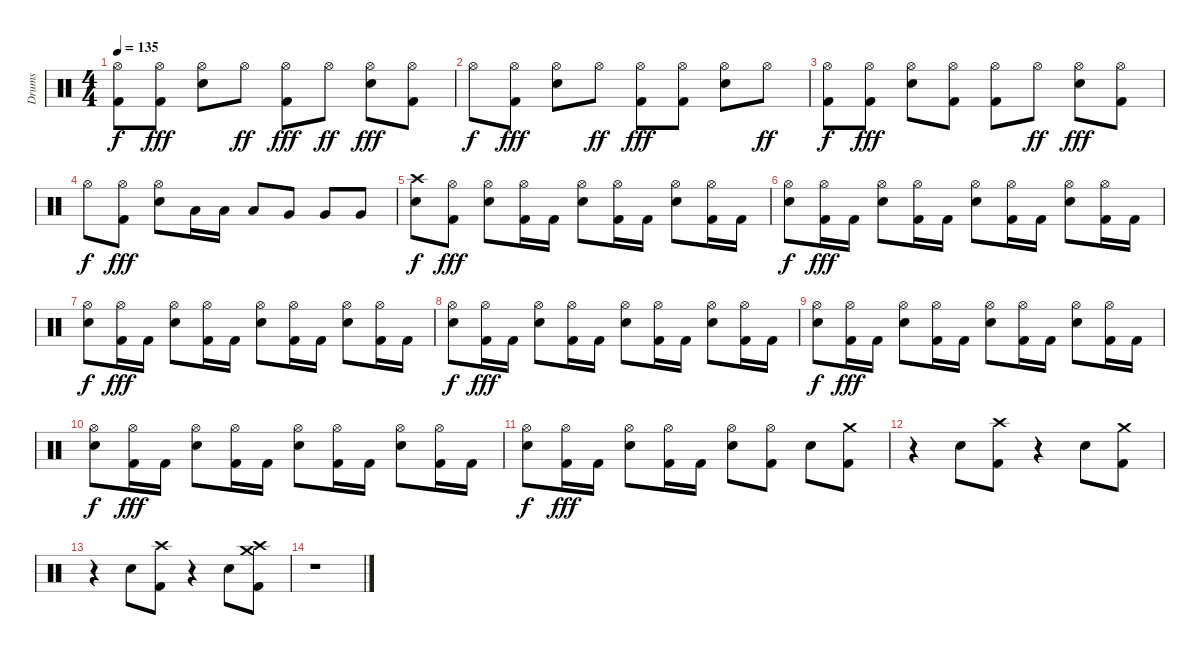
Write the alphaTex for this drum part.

\track ("Drums" "Drums") {instrument percussion}
\staff {score}
\articulation defaults
\ts (4 4)
\tempo 135
\clef neutral
\ks c
("Hi-Hat (open)" "Kick (hit) 2").8{dy f} ("Hi-Hat (open)" "Kick (hit) 2").8{dy fff} ("Hi-Hat (open)" "Snare (hit) 2").8 "Hi-Hat (open)".8{dy ff} ("Hi-Hat (open)" "Kick (hit) 2").8{dy fff} "Hi-Hat (open)".8{dy ff} ("Hi-Hat (open)" "Snare (hit) 2").8{dy fff} ("Hi-Hat (open)" "Kick (hit) 2").8 |
"Hi-Hat (open)".8{dy f} ("Hi-Hat (open)" "Kick (hit) 2").8{dy fff} ("Hi-Hat (open)" "Snare (hit) 2").8 "Hi-Hat (open)".8{dy ff} ("Hi-Hat (open)" "Kick (hit) 2").8{dy fff} ("Hi-Hat (open)" "Kick (hit) 2").8 ("Hi-Hat (open)" "Snare (hit) 2").8 "Hi-Hat (open)".8{dy ff} |
("Hi-Hat (open)" "Kick (hit) 2").8{dy f} ("Hi-Hat (open)" "Kick (hit) 2").8{dy fff} ("Hi-Hat (open)" "Snare (hit) 2").8 ("Hi-Hat (open)" "Kick (hit) 2").8 ("Hi-Hat (open)" "Kick (hit) 2").8 "Hi-Hat (open)".8{dy ff} ("Hi-Hat (open)" "Snare (hit) 2").8{dy fff} ("Hi-Hat (open)" "Kick (hit) 2").8 |
"Hi-Hat (open)".8{dy f} ("Hi-Hat (open)" "Kick (hit) 2").8{dy fff} ("Hi-Hat (open)" "Snare (hit) 2").8 "Low Tom (hit)".16 "Low Tom (hit)".16 "Low Tom (hit)".8 "Very Low Tom (hit)".8 "Very Low Tom (hit)".8 "Very Low Tom (hit)".8 |
("Crash high (hit)" "Snare (hit) 2").8{dy f} ("Hi-Hat (open)" "Kick (hit) 2").8{dy fff} ("Hi-Hat (open)" "Snare (hit) 2").8 ("Hi-Hat (open)" "Kick (hit) 2").16 "Kick (hit) 2".16 ("Hi-Hat (open)" "Snare (hit) 2").8 ("Hi-Hat (open)" "Kick (hit) 2").16 "Kick (hit) 2".16 ("Hi-Hat (open)" "Snare (hit) 2").8 ("Hi-Hat (open)" "Kick (hit) 2").16 "Kick (hit) 2".16 |
("Hi-Hat (open)" "Snare (hit) 2").8{dy f} ("Hi-Hat (open)" "Kick (hit) 2").16{dy fff} "Kick (hit) 2".16 ("Hi-Hat (open)" "Snare (hit) 2").8 ("Hi-Hat (open)" "Kick (hit) 2").16 "Kick (hit) 2".16 ("Hi-Hat (open)" "Snare (hit) 2").8 ("Hi-Hat (open)" "Kick (hit) 2").16 "Kick (hit) 2".16 ("Hi-Hat (open)" "Snare (hit) 2").8 ("Hi-Hat (open)" "Kick (hit) 2").16 "Kick (hit) 2".16 |
("Hi-Hat (open)" "Snare (hit) 2").8{dy f} ("Hi-Hat (open)" "Kick (hit) 2").16{dy fff} "Kick (hit) 2".16 ("Hi-Hat (open)" "Snare (hit) 2").8 ("Hi-Hat (open)" "Kick (hit) 2").16 "Kick (hit) 2".16 ("Hi-Hat (open)" "Snare (hit) 2").8 ("Hi-Hat (open)" "Kick (hit) 2").16 "Kick (hit) 2".16 ("Hi-Hat (open)" "Snare (hit) 2").8 ("Hi-Hat (open)" "Kick (hit) 2").16 "Kick (hit) 2".16 |
("Hi-Hat (open)" "Snare (hit) 2").8{dy f} ("Hi-Hat (open)" "Kick (hit) 2").16{dy fff} "Kick (hit) 2".16 ("Hi-Hat (open)" "Snare (hit) 2").8 ("Hi-Hat (open)" "Kick (hit) 2").16 "Kick (hit) 2".16 ("Hi-Hat (open)" "Snare (hit) 2").8 ("Hi-Hat (open)" "Kick (hit) 2").16 "Kick (hit) 2".16 ("Hi-Hat (open)" "Snare (hit) 2").8 ("Hi-Hat (open)" "Kick (hit) 2").16 "Kick (hit) 2".16 |
("Hi-Hat (open)" "Snare (hit) 2").8{dy f} ("Hi-Hat (open)" "Kick (hit) 2").16{dy fff} "Kick (hit) 2".16 ("Hi-Hat (open)" "Snare (hit) 2").8 ("Hi-Hat (open)" "Kick (hit) 2").16 "Kick (hit) 2".16 ("Hi-Hat (open)" "Snare (hit) 2").8 ("Hi-Hat (open)" "Kick (hit) 2").16 "Kick (hit) 2".16 ("Hi-Hat (open)" "Snare (hit) 2").8 ("Hi-Hat (open)" "Kick (hit) 2").16 "Kick (hit) 2".16 |
("Hi-Hat (open)" "Snare (hit) 2").8{dy f} ("Hi-Hat (open)" "Kick (hit) 2").16{dy fff} "Kick (hit) 2".16 ("Hi-Hat (open)" "Snare (hit) 2").8 ("Hi-Hat (open)" "Kick (hit) 2").16 "Kick (hit) 2".16 ("Hi-Hat (open)" "Snare (hit) 2").8 ("Hi-Hat (open)" "Kick (hit) 2").16 "Kick (hit) 2".16 ("Hi-Hat (open)" "Snare (hit) 2").8 ("Hi-Hat (open)" "Kick (hit) 2").16 "Kick (hit) 2".16 |
("Hi-Hat (open)" "Snare (hit) 2").8{dy f} ("Hi-Hat (open)" "Kick (hit) 2").16{dy fff} "Kick (hit) 2".16 ("Hi-Hat (open)" "Snare (hit) 2").8 ("Hi-Hat (open)" "Kick (hit) 2").16 "Kick (hit) 2".16 ("Hi-Hat (open)" "Snare (hit) 2").8 ("Hi-Hat (open)" "Kick (hit) 2").8 "Snare (hit) 2".8 ("Crash medium (hit)" "Kick (hit) 2").8 |
r.4 "Snare (hit) 2".8 ("Crash high (hit)" "Kick (hit) 2").8 r.4 "Snare (hit) 2".8 ("Crash medium (hit)" "Kick (hit) 2").8 |
r.4 "Snare (hit) 2".8 ("Crash high (hit)" "Kick (hit) 2").8 r.4 "Snare (hit) 2".8 ("Crash medium (hit)" "Crash high (hit)" "Kick (hit) 2").8 |
r.1
